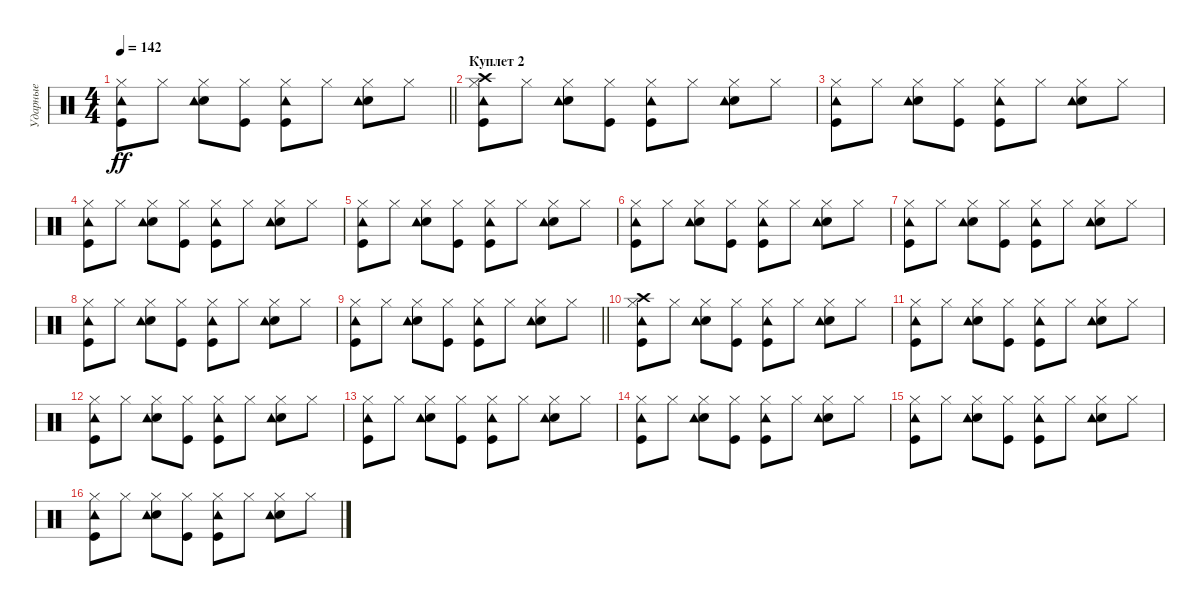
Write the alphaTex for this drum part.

\track ("Ударные" "Ударные") {instrument percussion}
\staff {score}
\articulation defaults
\ts (4 4)
\tempo 142
\clef neutral
\barLineRight lightlight
\ks c
("Hi-Hat (closed)" "Kick (hit)" "Tambourine (hit)").8{dy ff} "Hi-Hat (closed)".8 ("Hi-Hat (closed)" "Electric Snare (hit)" "Tambourine (hit)").8 ("Hi-Hat (closed)" "Kick (hit)").8 ("Hi-Hat (closed)" "Tambourine (hit)" "Kick (hit)").8 "Hi-Hat (closed)".8 ("Hi-Hat (closed)" "Electric Snare (hit)" "Tambourine (hit)").8 "Hi-Hat (closed)".8 |
\section ("" "Куплет 2")
("Crash high (hit)" "Hi-Hat (closed)" "Kick (hit)" "Tambourine (hit)").8 "Hi-Hat (closed)".8 ("Hi-Hat (closed)" "Electric Snare (hit)" "Tambourine (hit)").8 ("Hi-Hat (closed)" "Kick (hit)").8 ("Hi-Hat (closed)" "Tambourine (hit)" "Kick (hit)").8 "Hi-Hat (closed)".8 ("Hi-Hat (closed)" "Electric Snare (hit)" "Tambourine (hit)").8 "Hi-Hat (closed)".8 |
("Hi-Hat (closed)" "Kick (hit)" "Tambourine (hit)").8 "Hi-Hat (closed)".8 ("Hi-Hat (closed)" "Electric Snare (hit)" "Tambourine (hit)").8 ("Hi-Hat (closed)" "Kick (hit)").8 ("Hi-Hat (closed)" "Tambourine (hit)" "Kick (hit)").8 "Hi-Hat (closed)".8 ("Hi-Hat (closed)" "Electric Snare (hit)" "Tambourine (hit)").8 "Hi-Hat (closed)".8 |
("Hi-Hat (closed)" "Kick (hit)" "Tambourine (hit)").8 "Hi-Hat (closed)".8 ("Hi-Hat (closed)" "Electric Snare (hit)" "Tambourine (hit)").8 ("Hi-Hat (closed)" "Kick (hit)").8 ("Hi-Hat (closed)" "Tambourine (hit)" "Kick (hit)").8 "Hi-Hat (closed)".8 ("Hi-Hat (closed)" "Electric Snare (hit)" "Tambourine (hit)").8 "Hi-Hat (closed)".8 |
("Hi-Hat (closed)" "Kick (hit)" "Tambourine (hit)").8 "Hi-Hat (closed)".8 ("Hi-Hat (closed)" "Electric Snare (hit)" "Tambourine (hit)").8 ("Hi-Hat (closed)" "Kick (hit)").8 ("Hi-Hat (closed)" "Tambourine (hit)" "Kick (hit)").8 "Hi-Hat (closed)".8 ("Hi-Hat (closed)" "Electric Snare (hit)" "Tambourine (hit)").8 "Hi-Hat (closed)".8 |
("Hi-Hat (closed)" "Kick (hit)" "Tambourine (hit)").8 "Hi-Hat (closed)".8 ("Hi-Hat (closed)" "Electric Snare (hit)" "Tambourine (hit)").8 ("Hi-Hat (closed)" "Kick (hit)").8 ("Hi-Hat (closed)" "Tambourine (hit)" "Kick (hit)").8 "Hi-Hat (closed)".8 ("Hi-Hat (closed)" "Electric Snare (hit)" "Tambourine (hit)").8 "Hi-Hat (closed)".8 |
("Hi-Hat (closed)" "Kick (hit)" "Tambourine (hit)").8 "Hi-Hat (closed)".8 ("Hi-Hat (closed)" "Electric Snare (hit)" "Tambourine (hit)").8 ("Hi-Hat (closed)" "Kick (hit)").8 ("Hi-Hat (closed)" "Tambourine (hit)" "Kick (hit)").8 "Hi-Hat (closed)".8 ("Hi-Hat (closed)" "Electric Snare (hit)" "Tambourine (hit)").8 "Hi-Hat (closed)".8 |
("Hi-Hat (closed)" "Kick (hit)" "Tambourine (hit)").8 "Hi-Hat (closed)".8 ("Hi-Hat (closed)" "Electric Snare (hit)" "Tambourine (hit)").8 ("Hi-Hat (closed)" "Kick (hit)").8 ("Hi-Hat (closed)" "Tambourine (hit)" "Kick (hit)").8 "Hi-Hat (closed)".8 ("Hi-Hat (closed)" "Electric Snare (hit)" "Tambourine (hit)").8 "Hi-Hat (closed)".8 |
\barLineRight lightlight
("Hi-Hat (closed)" "Kick (hit)" "Tambourine (hit)").8 "Hi-Hat (closed)".8 ("Hi-Hat (closed)" "Electric Snare (hit)" "Tambourine (hit)").8 ("Hi-Hat (closed)" "Kick (hit)").8 ("Hi-Hat (closed)" "Tambourine (hit)" "Kick (hit)").8 "Hi-Hat (closed)".8 ("Hi-Hat (closed)" "Electric Snare (hit)" "Tambourine (hit)").8 "Hi-Hat (closed)".8 |
("Crash high (hit)" "Hi-Hat (closed)" "Kick (hit)" "Tambourine (hit)").8 "Hi-Hat (closed)".8 ("Hi-Hat (closed)" "Electric Snare (hit)" "Tambourine (hit)").8 ("Hi-Hat (closed)" "Kick (hit)").8 ("Hi-Hat (closed)" "Tambourine (hit)" "Kick (hit)").8 "Hi-Hat (closed)".8 ("Hi-Hat (closed)" "Electric Snare (hit)" "Tambourine (hit)").8 "Hi-Hat (closed)".8 |
("Hi-Hat (closed)" "Kick (hit)" "Tambourine (hit)").8 "Hi-Hat (closed)".8 ("Hi-Hat (closed)" "Electric Snare (hit)" "Tambourine (hit)").8 ("Hi-Hat (closed)" "Kick (hit)").8 ("Hi-Hat (closed)" "Tambourine (hit)" "Kick (hit)").8 "Hi-Hat (closed)".8 ("Hi-Hat (closed)" "Electric Snare (hit)" "Tambourine (hit)").8 "Hi-Hat (closed)".8 |
("Hi-Hat (closed)" "Kick (hit)" "Tambourine (hit)").8 "Hi-Hat (closed)".8 ("Hi-Hat (closed)" "Electric Snare (hit)" "Tambourine (hit)").8 ("Hi-Hat (closed)" "Kick (hit)").8 ("Hi-Hat (closed)" "Tambourine (hit)" "Kick (hit)").8 "Hi-Hat (closed)".8 ("Hi-Hat (closed)" "Electric Snare (hit)" "Tambourine (hit)").8 "Hi-Hat (closed)".8 |
("Hi-Hat (closed)" "Kick (hit)" "Tambourine (hit)").8 "Hi-Hat (closed)".8 ("Hi-Hat (closed)" "Electric Snare (hit)" "Tambourine (hit)").8 ("Hi-Hat (closed)" "Kick (hit)").8 ("Hi-Hat (closed)" "Tambourine (hit)" "Kick (hit)").8 "Hi-Hat (closed)".8 ("Hi-Hat (closed)" "Electric Snare (hit)" "Tambourine (hit)").8 "Hi-Hat (closed)".8 |
("Hi-Hat (closed)" "Kick (hit)" "Tambourine (hit)").8 "Hi-Hat (closed)".8 ("Hi-Hat (closed)" "Electric Snare (hit)" "Tambourine (hit)").8 ("Hi-Hat (closed)" "Kick (hit)").8 ("Hi-Hat (closed)" "Tambourine (hit)" "Kick (hit)").8 "Hi-Hat (closed)".8 ("Hi-Hat (closed)" "Electric Snare (hit)" "Tambourine (hit)").8 "Hi-Hat (closed)".8 |
("Hi-Hat (closed)" "Kick (hit)" "Tambourine (hit)").8 "Hi-Hat (closed)".8 ("Hi-Hat (closed)" "Electric Snare (hit)" "Tambourine (hit)").8 ("Hi-Hat (closed)" "Kick (hit)").8 ("Hi-Hat (closed)" "Tambourine (hit)" "Kick (hit)").8 "Hi-Hat (closed)".8 ("Hi-Hat (closed)" "Electric Snare (hit)" "Tambourine (hit)").8 "Hi-Hat (closed)".8 |
("Hi-Hat (closed)" "Kick (hit)" "Tambourine (hit)").8 "Hi-Hat (closed)".8 ("Hi-Hat (closed)" "Electric Snare (hit)" "Tambourine (hit)").8 ("Hi-Hat (closed)" "Kick (hit)").8 ("Hi-Hat (closed)" "Tambourine (hit)" "Kick (hit)").8 "Hi-Hat (closed)".8 ("Hi-Hat (closed)" "Electric Snare (hit)" "Tambourine (hit)").8 "Hi-Hat (closed)".8
